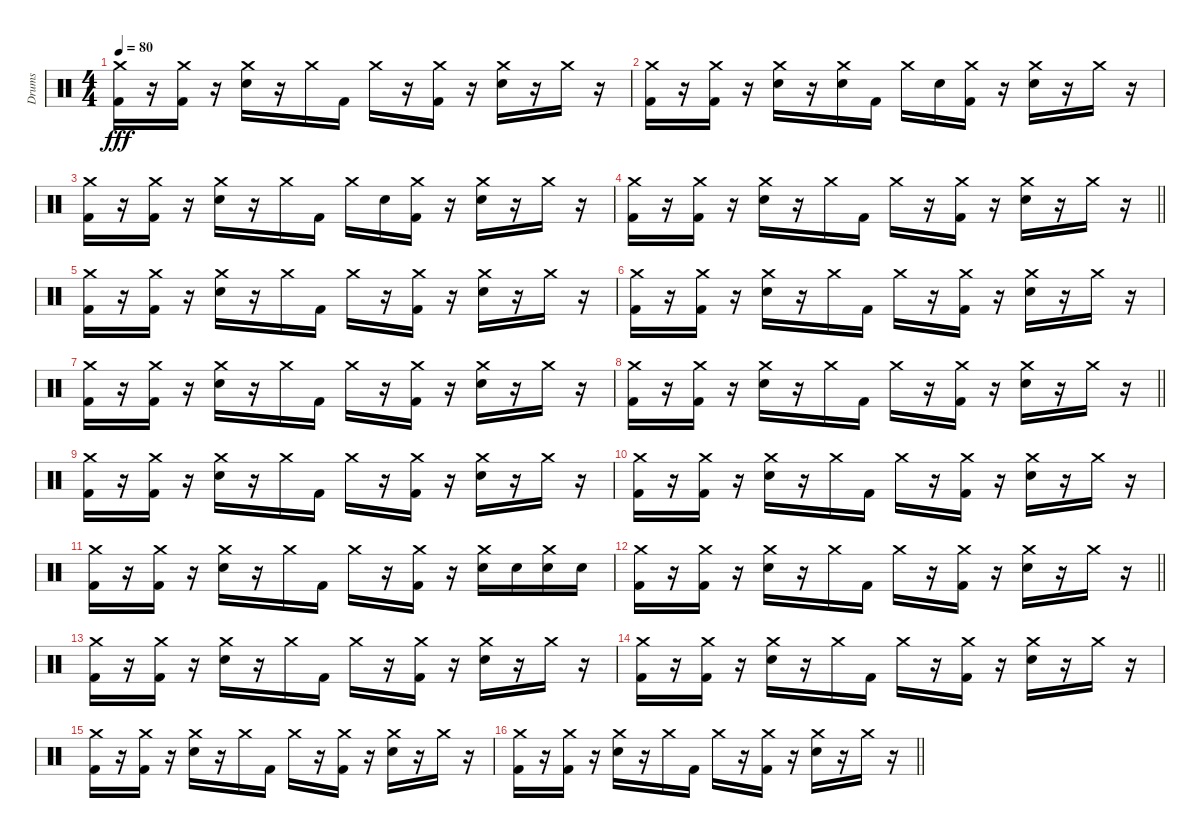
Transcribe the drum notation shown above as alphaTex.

\track ("Drums" "Drums") {instrument percussion}
\staff {score}
\articulation defaults
\ts (4 4)
\tempo 80
\clef neutral
\ks c
("Crash medium (hit)" "Kick (hit) 2").16{dy fff} r.16 ("Crash medium (hit)" "Kick (hit) 2").16 r.16 ("Crash medium (hit)" "Snare (hit) 2").16 r.16 "Crash medium (hit)".16 "Kick (hit) 2".16 "Crash medium (hit)".16 r.16 ("Crash medium (hit)" "Kick (hit) 2").16 r.16 ("Crash medium (hit)" "Snare (hit) 2").16 r.16 "Crash medium (hit)".16 r.16 |
("Crash medium (hit)" "Kick (hit) 2").16 r.16 ("Crash medium (hit)" "Kick (hit) 2").16 r.16 ("Crash medium (hit)" "Snare (hit) 2").16 r.16 ("Crash medium (hit)" "Snare (hit) 2").16 "Kick (hit) 2".16 "Crash medium (hit)".16 "Snare (hit) 2".16 ("Crash medium (hit)" "Kick (hit) 2").16 r.16 ("Crash medium (hit)" "Snare (hit) 2").16 r.16 "Crash medium (hit)".16 r.16 |
("Crash medium (hit)" "Kick (hit) 2").16 r.16 ("Crash medium (hit)" "Kick (hit) 2").16 r.16 ("Crash medium (hit)" "Snare (hit) 2").16 r.16 "Crash medium (hit)".16 "Kick (hit) 2".16 "Crash medium (hit)".16 "Snare (hit) 2".16 ("Crash medium (hit)" "Kick (hit) 2").16 r.16 ("Crash medium (hit)" "Snare (hit) 2").16 r.16 "Crash medium (hit)".16 r.16 |
\barLineRight lightlight
("Crash medium (hit)" "Kick (hit) 2").16 r.16 ("Crash medium (hit)" "Kick (hit) 2").16 r.16 ("Crash medium (hit)" "Snare (hit) 2").16 r.16 "Crash medium (hit)".16 "Kick (hit) 2".16 "Crash medium (hit)".16 r.16 ("Crash medium (hit)" "Kick (hit) 2").16 r.16 ("Crash medium (hit)" "Snare (hit) 2").16 r.16 "Crash medium (hit)".16 r.16 |
("Crash medium (hit)" "Kick (hit) 2").16 r.16 ("Crash medium (hit)" "Kick (hit) 2").16 r.16 ("Crash medium (hit)" "Snare (hit) 2").16 r.16 "Crash medium (hit)".16 "Kick (hit) 2".16 "Crash medium (hit)".16 r.16 ("Crash medium (hit)" "Kick (hit) 2").16 r.16 ("Crash medium (hit)" "Snare (hit) 2").16 r.16 "Crash medium (hit)".16 r.16 |
("Crash medium (hit)" "Kick (hit) 2").16 r.16 ("Crash medium (hit)" "Kick (hit) 2").16 r.16 ("Crash medium (hit)" "Snare (hit) 2").16 r.16 "Crash medium (hit)".16 "Kick (hit) 2".16 "Crash medium (hit)".16 r.16 ("Crash medium (hit)" "Kick (hit) 2").16 r.16 ("Crash medium (hit)" "Snare (hit) 2").16 r.16 "Crash medium (hit)".16 r.16 |
("Crash medium (hit)" "Kick (hit) 2").16 r.16 ("Crash medium (hit)" "Kick (hit) 2").16 r.16 ("Crash medium (hit)" "Snare (hit) 2").16 r.16 "Crash medium (hit)".16 "Kick (hit) 2".16 "Crash medium (hit)".16 r.16 ("Crash medium (hit)" "Kick (hit) 2").16 r.16 ("Crash medium (hit)" "Snare (hit) 2").16 r.16 "Crash medium (hit)".16 r.16 |
\barLineRight lightlight
("Crash medium (hit)" "Kick (hit) 2").16 r.16 ("Crash medium (hit)" "Kick (hit) 2").16 r.16 ("Crash medium (hit)" "Snare (hit) 2").16 r.16 "Crash medium (hit)".16 "Kick (hit) 2".16 "Crash medium (hit)".16 r.16 ("Crash medium (hit)" "Kick (hit) 2").16 r.16 ("Crash medium (hit)" "Snare (hit) 2").16 r.16 "Crash medium (hit)".16 r.16 |
("Crash medium (hit)" "Kick (hit) 2").16 r.16 ("Crash medium (hit)" "Kick (hit) 2").16 r.16 ("Crash medium (hit)" "Snare (hit) 2").16 r.16 "Crash medium (hit)".16 "Kick (hit) 2".16 "Crash medium (hit)".16 r.16 ("Crash medium (hit)" "Kick (hit) 2").16 r.16 ("Crash medium (hit)" "Snare (hit) 2").16 r.16 "Crash medium (hit)".16 r.16 |
("Crash medium (hit)" "Kick (hit) 2").16 r.16 ("Crash medium (hit)" "Kick (hit) 2").16 r.16 ("Crash medium (hit)" "Snare (hit) 2").16 r.16 "Crash medium (hit)".16 "Kick (hit) 2".16 "Crash medium (hit)".16 r.16 ("Crash medium (hit)" "Kick (hit) 2").16 r.16 ("Crash medium (hit)" "Snare (hit) 2").16 r.16 "Crash medium (hit)".16 r.16 |
("Crash medium (hit)" "Kick (hit) 2").16 r.16 ("Crash medium (hit)" "Kick (hit) 2").16 r.16 ("Crash medium (hit)" "Snare (hit) 2").16 r.16 "Crash medium (hit)".16 "Kick (hit) 2".16 "Crash medium (hit)".16 r.16 ("Crash medium (hit)" "Kick (hit) 2").16 r.16 ("Crash medium (hit)" "Snare (hit) 2").16 "Snare (hit) 2".16 ("Crash medium (hit)" "Snare (hit) 2").16 "Snare (hit) 2".16 |
\barLineRight lightlight
("Crash medium (hit)" "Kick (hit) 2").16 r.16 ("Crash medium (hit)" "Kick (hit) 2").16 r.16 ("Crash medium (hit)" "Snare (hit) 2").16 r.16 "Crash medium (hit)".16 "Kick (hit) 2".16 "Crash medium (hit)".16 r.16 ("Crash medium (hit)" "Kick (hit) 2").16 r.16 ("Crash medium (hit)" "Snare (hit) 2").16 r.16 "Crash medium (hit)".16 r.16 |
("Crash medium (hit)" "Kick (hit) 2").16 r.16 ("Crash medium (hit)" "Kick (hit) 2").16 r.16 ("Crash medium (hit)" "Snare (hit) 2").16 r.16 "Crash medium (hit)".16 "Kick (hit) 2".16 "Crash medium (hit)".16 r.16 ("Crash medium (hit)" "Kick (hit) 2").16 r.16 ("Crash medium (hit)" "Snare (hit) 2").16 r.16 "Crash medium (hit)".16 r.16 |
("Crash medium (hit)" "Kick (hit) 2").16 r.16 ("Crash medium (hit)" "Kick (hit) 2").16 r.16 ("Crash medium (hit)" "Snare (hit) 2").16 r.16 "Crash medium (hit)".16 "Kick (hit) 2".16 "Crash medium (hit)".16 r.16 ("Crash medium (hit)" "Kick (hit) 2").16 r.16 ("Crash medium (hit)" "Snare (hit) 2").16 r.16 "Crash medium (hit)".16 r.16 |
("Crash medium (hit)" "Kick (hit) 2").16 r.16 ("Crash medium (hit)" "Kick (hit) 2").16 r.16 ("Crash medium (hit)" "Snare (hit) 2").16 r.16 "Crash medium (hit)".16 "Kick (hit) 2".16 "Crash medium (hit)".16 r.16 ("Crash medium (hit)" "Kick (hit) 2").16 r.16 ("Crash medium (hit)" "Snare (hit) 2").16 r.16 "Crash medium (hit)".16 r.16 |
\barLineRight lightlight
("Crash medium (hit)" "Kick (hit) 2").16 r.16 ("Crash medium (hit)" "Kick (hit) 2").16 r.16 ("Crash medium (hit)" "Snare (hit) 2").16 r.16 "Crash medium (hit)".16 "Kick (hit) 2".16 "Crash medium (hit)".16 r.16 ("Crash medium (hit)" "Kick (hit) 2").16 r.16 ("Crash medium (hit)" "Snare (hit) 2").16 r.16 "Crash medium (hit)".16 r.16
